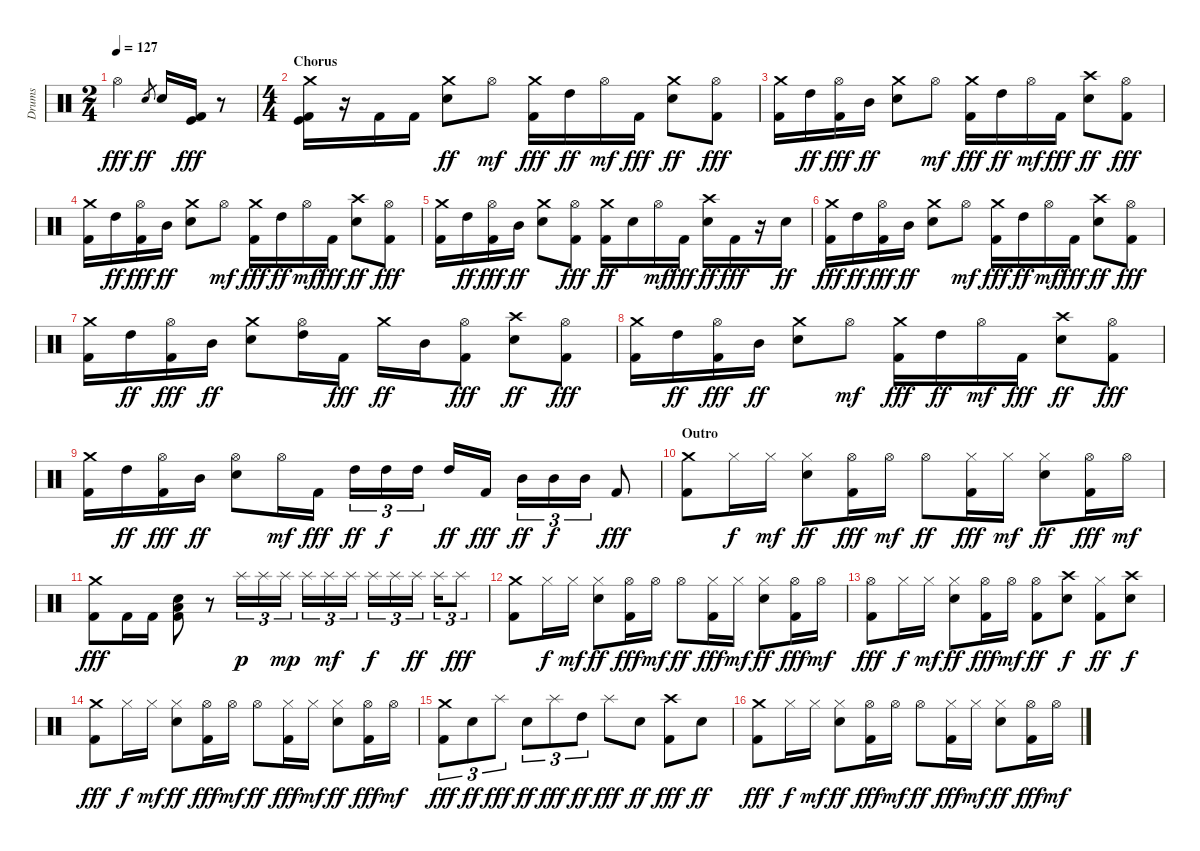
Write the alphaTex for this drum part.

\track ("Drums" "Drums") {instrument percussion}
\staff {score}
\articulation defaults
\ts (2 4)
\tempo 127
\clef neutral
\ks c "Hi-Hat (open)".4{dy fff} "Snare (hit) 2".8{gr dy ff} "Snare (hit) 2".16
("Kick (hit)" "Kick (hit) 2").16{dy fff} r.8 |
\ts (4 4)
\section ("" "Chorus")
("Crash medium (hit)" "Kick (hit)" "Kick (hit) 2").16 r.16 "Kick (hit) 2".16 "Kick (hit) 2".16 ("Crash medium (hit)" "Snare (hit) 2").8{dy ff} "Hi-Hat (open)".8{dy mf} ("Crash medium (hit)" "Kick (hit) 2").16{dy fff} "High Tom (hit)".16{dy ff} "Hi-Hat (open)".16{dy mf} "Kick (hit) 2".16{dy fff} ("Crash medium (hit)" "Snare (hit) 2").8{dy ff} ("Hi-Hat (open)" "Kick (hit) 2").8{dy fff} |
("Crash medium (hit)" "Kick (hit) 2").16 "High Tom (hit)".16{dy ff} ("Hi-Hat (open)" "Kick (hit) 2").16{dy fff} "Mid Tom (hit)".16{dy ff} ("Crash medium (hit)" "Snare (hit) 2").8 "Hi-Hat (open)".8{dy mf} ("Crash medium (hit)" "Kick (hit) 2").16{dy fff} "High Tom (hit)".16{dy ff} "Hi-Hat (open)".16{dy mf} "Kick (hit) 2".16{dy fff} ("Crash high (hit)" "Snare (hit) 2").8{dy ff} ("Hi-Hat (open)" "Kick (hit) 2").8{dy fff} |
("Crash medium (hit)" "Kick (hit) 2").16 "High Tom (hit)".16{dy ff} ("Hi-Hat (open)" "Kick (hit) 2").16{dy fff} "Mid Tom (hit)".16{dy ff} ("Crash medium (hit)" "Snare (hit) 2").8 "Hi-Hat (open)".8{dy mf} ("Crash medium (hit)" "Kick (hit) 2").16{dy fff} "High Tom (hit)".16{dy ff} "Hi-Hat (open)".16{dy mf} "Kick (hit) 2".16{dy fff} ("Crash high (hit)" "Snare (hit) 2").8{dy ff} ("Hi-Hat (open)" "Kick (hit) 2").8{dy fff} |
("Crash medium (hit)" "Kick (hit) 2").16 "High Tom (hit)".16{dy ff} ("Hi-Hat (open)" "Kick (hit) 2").16{dy fff} "Mid Tom (hit)".16{dy ff} ("Crash medium (hit)" "Snare (hit) 2").8 ("Hi-Hat (open)" "Kick (hit) 2").8{dy fff} ("Crash medium (hit)" "Kick (hit) 2").16{dy ff} "Snare (hit) 2".16 "Hi-Hat (open)".16{dy mf} "Kick (hit) 2".16{dy fff} ("Crash high (hit)" "Snare (hit) 2").16{dy ff} "Kick (hit) 2".16{dy fff} r.16 "Snare (hit) 2".16{dy ff} |
("Crash medium (hit)" "Kick (hit) 2").16{dy fff} "High Tom (hit)".16{dy ff} ("Hi-Hat (open)" "Kick (hit) 2").16{dy fff} "Mid Tom (hit)".16{dy ff} ("Crash medium (hit)" "Snare (hit) 2").8 "Hi-Hat (open)".8{dy mf} ("Crash medium (hit)" "Kick (hit) 2").16{dy fff} "High Tom (hit)".16{dy ff} "Hi-Hat (open)".16{dy mf} "Kick (hit) 2".16{dy fff} ("Crash high (hit)" "Snare (hit) 2").8{dy ff} ("Hi-Hat (open)" "Kick (hit) 2").8{dy fff} |
("Crash medium (hit)" "Kick (hit) 2").16 "High Tom (hit)".16{dy ff} ("Hi-Hat (open)" "Kick (hit) 2").16{dy fff} "Mid Tom (hit)".16{dy ff} ("Crash medium (hit)" "Snare (hit) 2").8 ("Hi-Hat (open)" "High Tom (hit)").16 "Kick (hit) 2".16{dy fff} "Crash medium (hit)".16{dy ff} "Mid Tom (hit)".16 ("Hi-Hat (open)" "Kick (hit) 2").8{dy fff} ("Crash high (hit)" "Snare (hit) 2").8{dy ff} ("Hi-Hat (open)" "Kick (hit) 2").8{dy fff} |
("Crash medium (hit)" "Kick (hit) 2").16 "High Tom (hit)".16{dy ff} ("Hi-Hat (open)" "Kick (hit) 2").16{dy fff} "Mid Tom (hit)".16{dy ff} ("Crash medium (hit)" "Snare (hit) 2").8 "Hi-Hat (open)".8{dy mf} ("Crash medium (hit)" "Kick (hit) 2").16{dy fff} "High Tom (hit)".16{dy ff} "Hi-Hat (open)".16{dy mf} "Kick (hit) 2".16{dy fff} ("Crash high (hit)" "Snare (hit) 2").8{dy ff} ("Hi-Hat (open)" "Kick (hit) 2").8{dy fff} |
("Crash medium (hit)" "Kick (hit) 2").16 "High Tom (hit)".16{dy ff} ("Hi-Hat (open)" "Kick (hit) 2").16{dy fff} "Mid Tom (hit)".16{dy ff} ("Hi-Hat (open)" "Snare (hit) 2").8 "Hi-Hat (open)".16{dy mf} "Kick (hit) 2".16{dy fff} "High Tom (hit)".16{tu (3 2) dy ff} "High Tom (hit)".16{tu (3 2) dy f} "High Tom (hit)".16{tu (3 2)} "High Tom (hit)".16{dy ff} "Kick (hit) 2".16{dy fff} "Mid Tom (hit)".16{tu (3 2) dy ff} "Mid Tom (hit)".16{tu (3 2) dy f} "Mid Tom (hit)".16{tu (3 2)} "Kick (hit) 2".8{dy fff} |
\section ("" "Outro")
("Crash medium (hit)" "Kick (hit) 2").8 "Hi-Hat (closed)".16{dy f} "Hi-Hat (closed)".16{dy mf} ("Hi-Hat (closed)" "Snare (hit) 2").8{dy ff} ("Hi-Hat (open)" "Kick (hit) 2").16{dy fff} "Hi-Hat (open)".16{dy mf} "Hi-Hat (open)".8{dy ff} ("Hi-Hat (closed)" "Kick (hit) 2").16{dy fff} "Hi-Hat (closed)".16{dy mf} ("Hi-Hat (closed)" "Snare (hit) 2").8{dy ff} ("Hi-Hat (open)" "Kick (hit) 2").16{dy fff} "Hi-Hat (open)".16{dy mf} |
("Crash medium (hit)" "Kick (hit) 2").8{dy fff} "Kick (hit) 2".16 "Kick (hit) 2".16 ("Snare (hit) 2" "Low Tom (hit)" "Kick (hit) 2").8 r.8 "Splash (hit)".16{tu (3 2) dy p} "Splash (hit)".16{tu (3 2)} "Splash (hit)".16{tu (3 2) dy mp} "Splash (hit)".16{tu (3 2)} "Splash (hit)".16{tu (3 2) dy mf} "Splash (hit)".16{tu (3 2)} "Splash (hit)".16{tu (3 2) dy f} "Splash (hit)".16{tu (3 2)} "Splash (hit)".16{tu (3 2) dy ff} "Splash (hit)".16{tu (3 2)} "Splash (hit)".8{tu (3 2) dy fff} |
("Crash medium (hit)" "Kick (hit) 2").8 "Hi-Hat (closed)".16{dy f} "Hi-Hat (closed)".16{dy mf} ("Hi-Hat (closed)" "Snare (hit) 2").8{dy ff} ("Hi-Hat (open)" "Kick (hit) 2").16{dy fff} "Hi-Hat (open)".16{dy mf} "Hi-Hat (open)".8{dy ff} ("Hi-Hat (closed)" "Kick (hit) 2").16{dy fff} "Hi-Hat (closed)".16{dy mf} ("Hi-Hat (closed)" "Snare (hit) 2").8{dy ff} ("Hi-Hat (open)" "Kick (hit) 2").16{dy fff} "Hi-Hat (open)".16{dy mf} |
("Hi-Hat (open)" "Kick (hit) 2").8{dy fff} "Hi-Hat (closed)".16{dy f} "Hi-Hat (closed)".16{dy mf} ("Hi-Hat (closed)" "Snare (hit) 2").8{dy ff} ("Hi-Hat (open)" "Kick (hit) 2").16{dy fff} "Hi-Hat (open)".16{dy mf} ("Hi-Hat (open)" "Kick (hit) 2").8{dy ff} ("Crash high (hit)" "Snare (hit) 2").8{dy f} ("Hi-Hat (closed)" "Kick (hit) 2").8{dy ff} ("Crash high (hit)" "Snare (hit) 2").8{dy f} |
("Crash medium (hit)" "Kick (hit) 2").8{dy fff} "Hi-Hat (closed)".16{dy f} "Hi-Hat (closed)".16{dy mf} ("Hi-Hat (closed)" "Snare (hit) 2").8{dy ff} ("Hi-Hat (open)" "Kick (hit) 2").16{dy fff} "Hi-Hat (open)".16{dy mf} "Hi-Hat (open)".8{dy ff} ("Hi-Hat (closed)" "Kick (hit) 2").16{dy fff} "Hi-Hat (closed)".16{dy mf} ("Hi-Hat (closed)" "Snare (hit) 2").8{dy ff} ("Hi-Hat (open)" "Kick (hit) 2").16{dy fff} "Hi-Hat (open)".16{dy mf} |
("Crash medium (hit)" "Kick (hit) 2").8{tu (3 2) dy fff} "Snare (hit) 2".8{tu (3 2) dy ff} "Splash (hit)".8{tu (3 2) dy fff} "Snare (hit) 2".8{tu (3 2) dy ff} "Splash (hit)".8{tu (3 2) dy fff} "High Tom (hit)".8{tu (3 2) dy ff} "Splash (hit)".8{dy fff} "Snare (hit) 2".8{dy ff} ("Crash high (hit)" "Kick (hit) 2").8{dy fff} "Snare (hit) 2".8{dy ff} |
("Crash medium (hit)" "Kick (hit) 2").8{dy fff} "Hi-Hat (closed)".16{dy f} "Hi-Hat (closed)".16{dy mf} ("Hi-Hat (closed)" "Snare (hit) 2").8{dy ff} ("Hi-Hat (open)" "Kick (hit) 2").16{dy fff} "Hi-Hat (open)".16{dy mf} "Hi-Hat (open)".8{dy ff} ("Hi-Hat (closed)" "Kick (hit) 2").16{dy fff} "Hi-Hat (closed)".16{dy mf} ("Hi-Hat (closed)" "Snare (hit) 2").8{dy ff} ("Hi-Hat (open)" "Kick (hit) 2").16{dy fff} "Hi-Hat (open)".16{dy mf}
